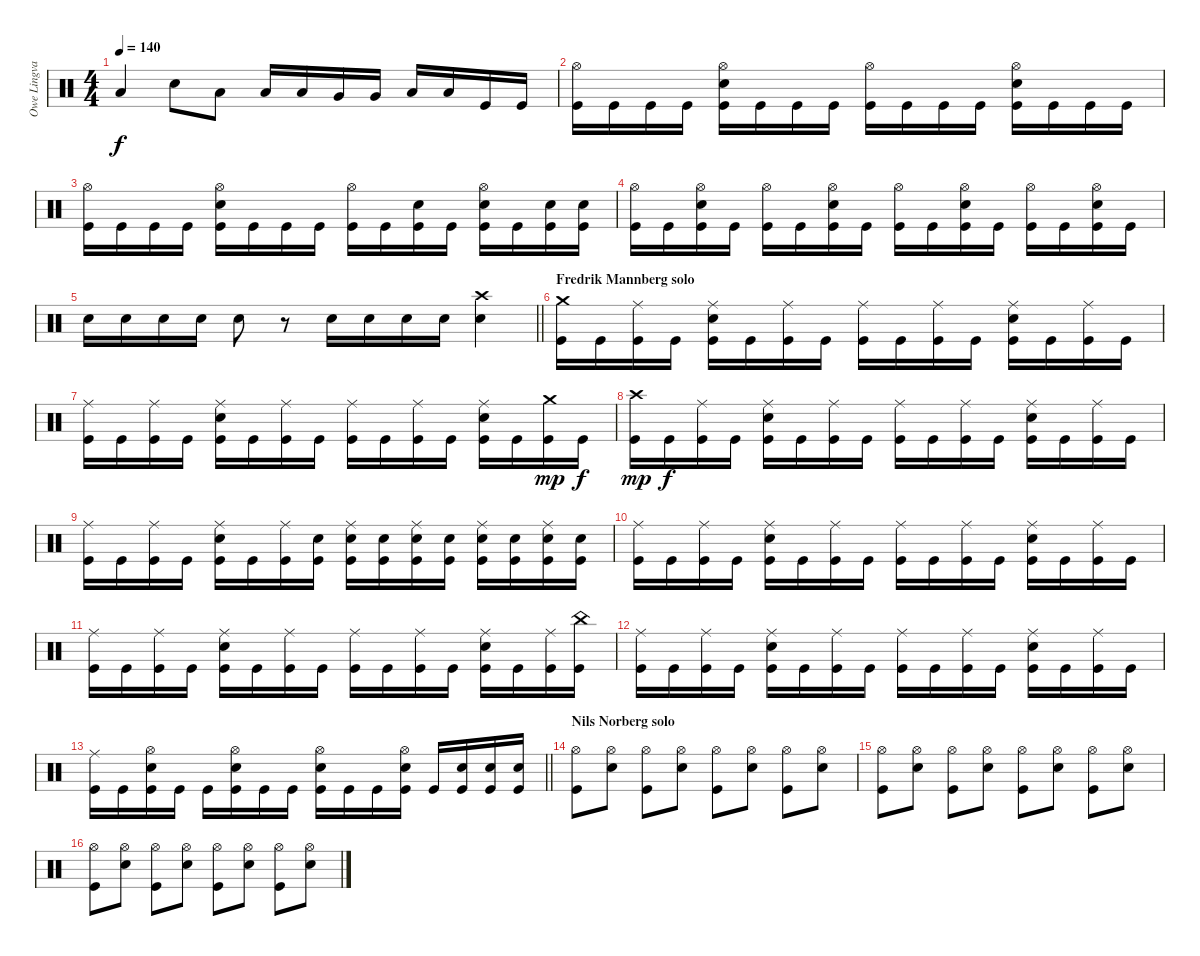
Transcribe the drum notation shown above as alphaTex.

\track ("Owe Lingvall" "Owe Lingva") {instrument percussion}
\staff {score}
\articulation defaults
\ts (4 4)
\tempo 140
\clef neutral
\ks c "Low Tom (hit)".4{dy f} "Snare (hit) 2".8 "Low Tom (hit)".8 "Low Tom (hit)".16 "Low Tom (hit)".16 "Very Low Tom (hit)".16 "Very Low Tom (hit)".16 "Low Floor Tom (hit)".16 "Low Floor Tom (hit)".16 "Kick (hit)".16 "Kick (hit)".16
|
("Hi-Hat (open)" "Kick (hit)").16 "Kick (hit)".16 "Kick (hit)".16 "Kick (hit)".16 ("Hi-Hat (open)" "Snare (hit) 2" "Kick (hit)").16 "Kick (hit)".16 "Kick (hit)".16 "Kick (hit)".16 ("Hi-Hat (open)" "Kick (hit)").16 "Kick (hit)".16 "Kick (hit)".16 "Kick (hit)".16 ("Hi-Hat (open)" "Snare (hit) 2" "Kick (hit)").16 "Kick (hit)".16 "Kick (hit)".16 "Kick (hit)".16 |
("Hi-Hat (open)" "Kick (hit)").16 "Kick (hit)".16 "Kick (hit)".16 "Kick (hit)".16 ("Hi-Hat (open)" "Snare (hit) 2" "Kick (hit)").16 "Kick (hit)".16 "Kick (hit)".16 "Kick (hit)".16 ("Hi-Hat (open)" "Kick (hit)").16 "Kick (hit)".16 ("Kick (hit)" "Snare (hit) 2").16 "Kick (hit)".16 ("Hi-Hat (open)" "Snare (hit) 2" "Kick (hit)").16 "Kick (hit)".16 ("Kick (hit)" "Snare (hit) 2").16 ("Kick (hit)" "Snare (hit) 2").16 |
("Kick (hit)" "Hi-Hat (open)").16 "Kick (hit)".16 ("Kick (hit)" "Hi-Hat (open)" "Snare (hit) 2").16 "Kick (hit)".16 ("Kick (hit)" "Hi-Hat (open)").16 "Kick (hit)".16 ("Kick (hit)" "Hi-Hat (open)" "Snare (hit) 2").16 "Kick (hit)".16 ("Kick (hit)" "Hi-Hat (open)").16 "Kick (hit)".16 ("Kick (hit)" "Hi-Hat (open)" "Snare (hit) 2").16 "Kick (hit)".16 ("Kick (hit)" "Hi-Hat (open)").16 "Kick (hit)".16 ("Kick (hit)" "Hi-Hat (open)" "Snare (hit) 2").16 "Kick (hit)".16 |
\barLineRight lightlight "Snare (hit) 2".16 "Snare (hit) 2".16 "Snare (hit) 2".16 "Snare (hit) 2".16 "Snare (hit) 2".8
r.8 "Snare (hit) 2".16 "Snare (hit) 2".16 "Snare (hit) 2".16 "Snare (hit) 2".16 ("Snare (hit) 2" "Crash high (hit)").4 |
\section ("" "Fredrik Mannberg solo")
("Kick (hit)" "Crash medium (hit)").16 "Kick (hit)".16 ("Kick (hit)" "Ride (middle)").16 "Kick (hit)".16 ("Kick (hit)" "Ride (middle)" "Snare (hit) 2").16 "Kick (hit)".16 ("Kick (hit)" "Ride (middle)").16 "Kick (hit)".16 ("Kick (hit)" "Ride (middle)").16 "Kick (hit)".16 ("Kick (hit)" "Ride (middle)").16 "Kick (hit)".16 ("Kick (hit)" "Ride (middle)" "Snare (hit) 2").16 "Kick (hit)".16 ("Kick (hit)" "Ride (middle)").16 "Kick (hit)".16 |
("Kick (hit)" "Ride (middle)").16 "Kick (hit)".16 ("Kick (hit)" "Ride (middle)").16 "Kick (hit)".16 ("Kick (hit)" "Ride (middle)" "Snare (hit) 2").16 "Kick (hit)".16 ("Kick (hit)" "Ride (middle)").16 "Kick (hit)".16 ("Kick (hit)" "Ride (middle)").16 "Kick (hit)".16 ("Kick (hit)" "Ride (middle)").16 "Kick (hit)".16 ("Kick (hit)" "Ride (middle)" "Snare (hit) 2").16 "Kick (hit)".16 ("Kick (hit)" "Crash medium (hit)").16{dy mp} "Kick (hit)".16{dy f} |
("Kick (hit)" "Crash high (hit)").16{dy mp} "Kick (hit)".16{dy f} ("Kick (hit)" "Ride (middle)").16 "Kick (hit)".16 ("Kick (hit)" "Ride (middle)" "Snare (hit) 2").16 "Kick (hit)".16 ("Kick (hit)" "Ride (middle)").16 "Kick (hit)".16 ("Kick (hit)" "Ride (middle)").16 "Kick (hit)".16 ("Kick (hit)" "Ride (middle)").16 "Kick (hit)".16 ("Kick (hit)" "Ride (middle)" "Snare (hit) 2").16 "Kick (hit)".16 ("Kick (hit)" "Ride (middle)").16 "Kick (hit)".16 |
("Kick (hit)" "Ride (middle)").16 "Kick (hit)".16 ("Kick (hit)" "Ride (middle)").16 "Kick (hit)".16 ("Kick (hit)" "Ride (middle)" "Snare (hit) 2").16 "Kick (hit)".16 ("Kick (hit)" "Ride (middle)").16 ("Kick (hit)" "Snare (hit) 2").16 ("Kick (hit)" "Ride (middle)" "Snare (hit) 2").16 ("Kick (hit)" "Snare (hit) 2").16 ("Kick (hit)" "Snare (hit) 2" "Ride (middle)").16 ("Kick (hit)" "Snare (hit) 2").16 ("Kick (hit)" "Ride (middle)" "Snare (hit) 2").16 ("Kick (hit)" "Snare (hit) 2").16 ("Kick (hit)" "Ride (middle)" "Snare (hit) 2").16 ("Kick (hit)" "Snare (hit) 2").16 |
("Kick (hit)" "Ride (middle)").16 "Kick (hit)".16 ("Kick (hit)" "Ride (middle)").16 "Kick (hit)".16 ("Kick (hit)" "Ride (middle)" "Snare (hit) 2").16 "Kick (hit)".16 ("Kick (hit)" "Ride (middle)").16 "Kick (hit)".16 ("Kick (hit)" "Ride (middle)").16 "Kick (hit)".16 ("Kick (hit)" "Ride (middle)").16 "Kick (hit)".16 ("Kick (hit)" "Ride (middle)" "Snare (hit) 2").16 "Kick (hit)".16 ("Kick (hit)" "Ride (middle)").16 "Kick (hit)".16 |
("Kick (hit)" "Ride (middle)").16 "Kick (hit)".16 ("Kick (hit)" "Ride (middle)").16 "Kick (hit)".16 ("Kick (hit)" "Ride (middle)" "Snare (hit) 2").16 "Kick (hit)".16 ("Kick (hit)" "Ride (middle)").16 "Kick (hit)".16 ("Kick (hit)" "Ride (middle)").16 "Kick (hit)".16 ("Kick (hit)" "Ride (middle)").16 "Kick (hit)".16 ("Kick (hit)" "Ride (middle)" "Snare (hit) 2").16 "Kick (hit)".16 ("Kick (hit)" "Ride (middle)").16 ("Kick (hit)" "China (hit)").16 |
("Kick (hit)" "Ride (middle)").16 "Kick (hit)".16 ("Kick (hit)" "Ride (middle)").16 "Kick (hit)".16 ("Kick (hit)" "Ride (middle)" "Snare (hit) 2").16 "Kick (hit)".16 ("Kick (hit)" "Ride (middle)").16 "Kick (hit)".16 ("Kick (hit)" "Ride (middle)").16 "Kick (hit)".16 ("Kick (hit)" "Ride (middle)").16 "Kick (hit)".16 ("Kick (hit)" "Ride (middle)" "Snare (hit) 2").16 "Kick (hit)".16 ("Kick (hit)" "Ride (middle)").16 "Kick (hit)".16 |
\barLineRight lightlight
("Kick (hit)" "Ride (middle)").16 "Kick (hit)".16 ("Kick (hit)" "Hi-Hat (open)" "Snare (hit) 2").16 "Kick (hit)".16 "Kick (hit)".16 ("Kick (hit)" "Hi-Hat (open)" "Snare (hit) 2").16 "Kick (hit)".16 "Kick (hit)".16 ("Kick (hit)" "Snare (hit) 2" "Hi-Hat (open)").16 "Kick (hit)".16 "Kick (hit)".16 ("Kick (hit)" "Snare (hit) 2" "Hi-Hat (open)").16 "Kick (hit)".16 ("Kick (hit)" "Snare (hit) 2").16 ("Kick (hit)" "Snare (hit) 2").16 ("Kick (hit)" "Snare (hit) 2").16 |
\section ("" "Nils Norberg solo")
("Hi-Hat (open)" "Kick (hit)").8 ("Hi-Hat (open)" "Snare (hit) 2").8 ("Hi-Hat (open)" "Kick (hit)").8 ("Hi-Hat (open)" "Snare (hit) 2").8 ("Kick (hit)" "Hi-Hat (open)").8 ("Hi-Hat (open)" "Snare (hit) 2").8 ("Hi-Hat (open)" "Kick (hit)").8 ("Hi-Hat (open)" "Snare (hit) 2").8 |
("Hi-Hat (open)" "Kick (hit)").8 ("Hi-Hat (open)" "Snare (hit) 2").8 ("Hi-Hat (open)" "Kick (hit)").8 ("Hi-Hat (open)" "Snare (hit) 2").8 ("Kick (hit)" "Hi-Hat (open)").8 ("Hi-Hat (open)" "Snare (hit) 2").8 ("Hi-Hat (open)" "Kick (hit)").8 ("Hi-Hat (open)" "Snare (hit) 2").8 |
("Hi-Hat (open)" "Kick (hit)").8 ("Hi-Hat (open)" "Snare (hit) 2").8 ("Hi-Hat (open)" "Kick (hit)").8 ("Hi-Hat (open)" "Snare (hit) 2").8 ("Kick (hit)" "Hi-Hat (open)").8 ("Hi-Hat (open)" "Snare (hit) 2").8 ("Hi-Hat (open)" "Kick (hit)").8 ("Hi-Hat (open)" "Snare (hit) 2").8
